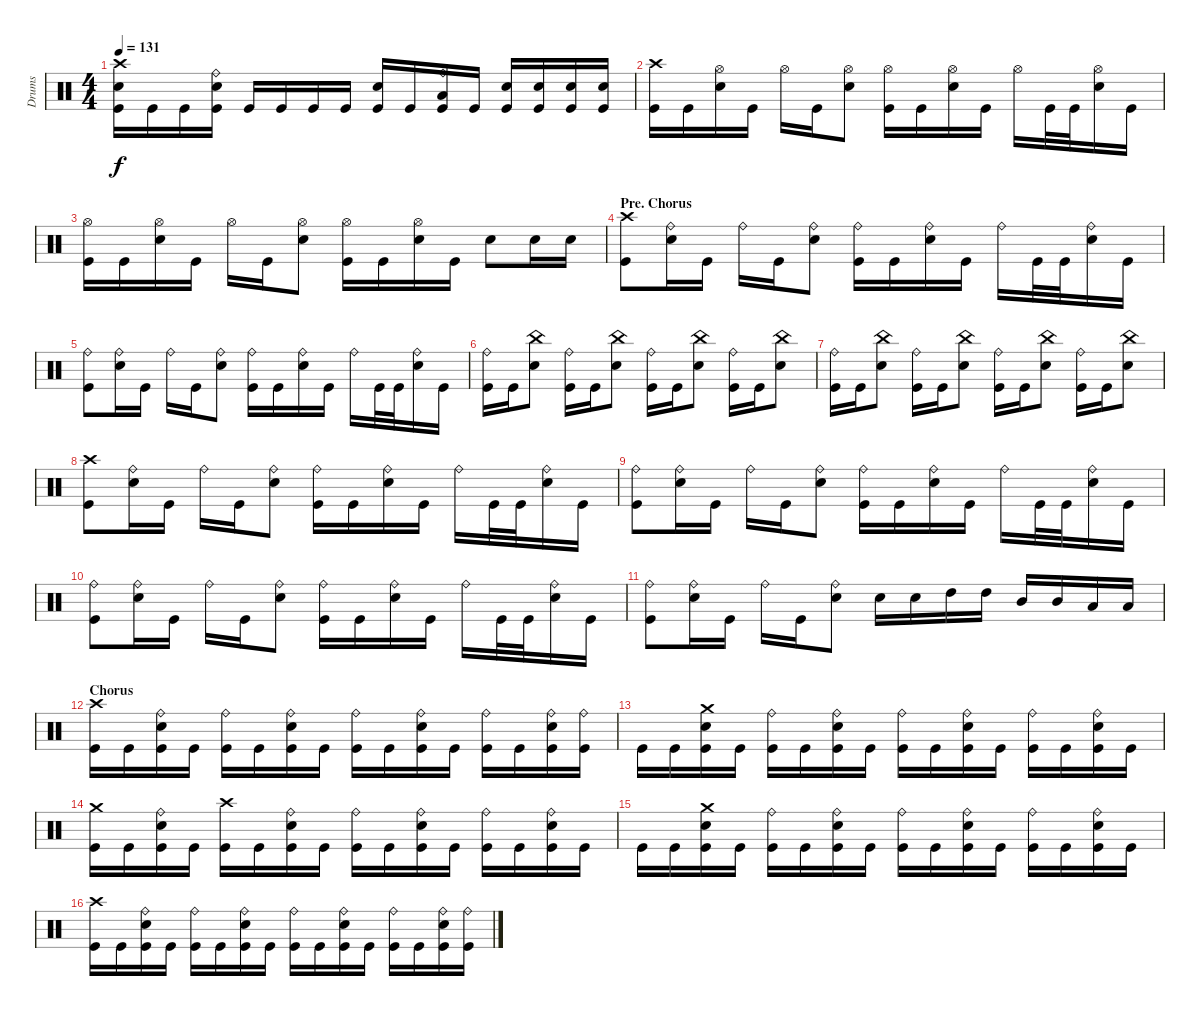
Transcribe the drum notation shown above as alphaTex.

\track ("Drums" "Drums") {instrument percussion}
\staff {score}
\articulation defaults
\ts (4 4)
\tempo 131
\clef neutral
\ks c
("Crash high (hit)" "Snare (hit) 2" "Kick (hit)").16{dy f} "Kick (hit)".16 "Kick (hit)".16 ("Ride (bell)" "Snare (hit) 2" "Kick (hit)").16 "Kick (hit)".16 "Kick (hit)".16 "Kick (hit)".16 "Kick (hit)".16 ("Snare (hit) 2" "Kick (hit)").16 "Kick (hit)".16 ("Low Tom (hit)" "Ride (bell)" "Kick (hit)").16 "Kick (hit)".16 ("Snare (hit) 2" "Kick (hit)").16 ("Snare (hit) 2" "Kick (hit)").16 ("Snare (hit) 2" "Kick (hit)").16 ("Snare (hit) 2" "Kick (hit)").16 |
("Crash high (hit)" "Kick (hit)").16 "Kick (hit)".16 ("Hi-Hat (open)" "Snare (hit) 2").16 "Kick (hit)".16 "Hi-Hat (open)".16 "Kick (hit)".16 ("Hi-Hat (open)" "Snare (hit) 2").8 ("Hi-Hat (open)" "Kick (hit)").16 "Kick (hit)".16 ("Hi-Hat (open)" "Snare (hit) 2").16 "Kick (hit)".16 "Hi-Hat (open)".16 "Kick (hit)".32 "Kick (hit)".32 ("Hi-Hat (open)" "Snare (hit) 2").16 "Kick (hit)".16 |
("Hi-Hat (open)" "Kick (hit)").16 "Kick (hit)".16 ("Hi-Hat (open)" "Snare (hit) 2").16 "Kick (hit)".16 "Hi-Hat (open)".16 "Kick (hit)".16 ("Hi-Hat (open)" "Snare (hit) 2").8 ("Hi-Hat (open)" "Kick (hit)").16 "Kick (hit)".16 ("Hi-Hat (open)" "Snare (hit) 2").16 "Kick (hit)".16 "Snare (hit) 2".8 "Snare (hit) 2".16 "Snare (hit) 2".16 |
\section ("" "Pre. Chorus")
("Crash high (hit)" "Kick (hit)").8 ("Ride (bell)" "Snare (hit) 2").16 "Kick (hit)".16 "Ride (bell)".16 "Kick (hit)".16 ("Ride (bell)" "Snare (hit) 2").8 ("Ride (bell)" "Kick (hit)").16 "Kick (hit)".16 ("Ride (bell)" "Snare (hit) 2").16 "Kick (hit)".16 "Ride (bell)".16 "Kick (hit)".32 "Kick (hit)".32 ("Ride (bell)" "Snare (hit) 2").16 "Kick (hit)".16 |
("Ride (bell)" "Kick (hit)").8 ("Ride (bell)" "Snare (hit) 2").16 "Kick (hit)".16 "Ride (bell)".16 "Kick (hit)".16 ("Ride (bell)" "Snare (hit) 2").8 ("Ride (bell)" "Kick (hit)").16 "Kick (hit)".16 ("Ride (bell)" "Snare (hit) 2").16 "Kick (hit)".16 "Ride (bell)".16 "Kick (hit)".32 "Kick (hit)".32 ("Ride (bell)" "Snare (hit) 2").16 "Kick (hit)".16 |
("Ride (bell)" "Kick (hit)").16 "Kick (hit)".16 ("China (hit)" "Snare (hit) 2").8 ("Ride (bell)" "Kick (hit)").16 "Kick (hit)".16 ("China (hit)" "Snare (hit) 2").8 ("Ride (bell)" "Kick (hit)").16 "Kick (hit)".16 ("China (hit)" "Snare (hit) 2").8 ("Ride (bell)" "Kick (hit)").16 "Kick (hit)".16 ("China (hit)" "Snare (hit) 2").8 |
("Ride (bell)" "Kick (hit)").16 "Kick (hit)".16 ("China (hit)" "Snare (hit) 2").8 ("Ride (bell)" "Kick (hit)").16 "Kick (hit)".16 ("China (hit)" "Snare (hit) 2").8 ("Ride (bell)" "Kick (hit)").16 "Kick (hit)".16 ("China (hit)" "Snare (hit) 2").8 ("Ride (bell)" "Kick (hit)").16 "Kick (hit)".16 ("China (hit)" "Snare (hit) 2").8 |
("Crash high (hit)" "Kick (hit)").8 ("Ride (bell)" "Snare (hit) 2").16 "Kick (hit)".16 "Ride (bell)".16 "Kick (hit)".16 ("Ride (bell)" "Snare (hit) 2").8 ("Ride (bell)" "Kick (hit)").16 "Kick (hit)".16 ("Ride (bell)" "Snare (hit) 2").16 "Kick (hit)".16 "Ride (bell)".16 "Kick (hit)".32 "Kick (hit)".32 ("Ride (bell)" "Snare (hit) 2").16 "Kick (hit)".16 |
("Ride (bell)" "Kick (hit)").8 ("Ride (bell)" "Snare (hit) 2").16 "Kick (hit)".16 "Ride (bell)".16 "Kick (hit)".16 ("Ride (bell)" "Snare (hit) 2").8 ("Ride (bell)" "Kick (hit)").16 "Kick (hit)".16 ("Ride (bell)" "Snare (hit) 2").16 "Kick (hit)".16 "Ride (bell)".16 "Kick (hit)".32 "Kick (hit)".32 ("Ride (bell)" "Snare (hit) 2").16 "Kick (hit)".16 |
("Ride (bell)" "Kick (hit)").8 ("Ride (bell)" "Snare (hit) 2").16 "Kick (hit)".16 "Ride (bell)".16 "Kick (hit)".16 ("Ride (bell)" "Snare (hit) 2").8 ("Ride (bell)" "Kick (hit)").16 "Kick (hit)".16 ("Ride (bell)" "Snare (hit) 2").16 "Kick (hit)".16 "Ride (bell)".16 "Kick (hit)".32 "Kick (hit)".32 ("Ride (bell)" "Snare (hit) 2").16 "Kick (hit)".16 |
("Ride (bell)" "Kick (hit)").8 ("Ride (bell)" "Snare (hit) 2").16 "Kick (hit)".16 "Ride (bell)".16 "Kick (hit)".16 ("Ride (bell)" "Snare (hit) 2").8 "Snare (hit) 2".16 "Snare (hit) 2".16 "High Tom (hit)".16 "High Tom (hit)".16 "Mid Tom (hit)".16 "Mid Tom (hit)".16 "Low Tom (hit)".16 "Low Tom (hit)".16 |
\section ("" "Chorus")
("Crash high (hit)" "Kick (hit)").16 "Kick (hit)".16 ("Ride (bell)" "Snare (hit) 2" "Kick (hit)").16 "Kick (hit)".16 ("Ride (bell)" "Kick (hit)").16 "Kick (hit)".16 ("Ride (bell)" "Snare (hit) 2" "Kick (hit)").16 "Kick (hit)".16 ("Ride (bell)" "Kick (hit)").16 "Kick (hit)".16 ("Ride (bell)" "Snare (hit) 2" "Kick (hit)").16 "Kick (hit)".16 ("Ride (bell)" "Kick (hit)").16 "Kick (hit)".16 ("Ride (bell)" "Snare (hit) 2" "Kick (hit)").16 ("Ride (bell)" "Kick (hit)").16 |
"Kick (hit)".16 "Kick (hit)".16 ("Crash medium (hit)" "Snare (hit) 2" "Kick (hit)").16 "Kick (hit)".16 ("Ride (bell)" "Kick (hit)").16 "Kick (hit)".16 ("Ride (bell)" "Snare (hit) 2" "Kick (hit)").16 "Kick (hit)".16 ("Ride (bell)" "Kick (hit)").16 "Kick (hit)".16 ("Ride (bell)" "Snare (hit) 2" "Kick (hit)").16 "Kick (hit)".16 ("Ride (bell)" "Kick (hit)").16 "Kick (hit)".16 ("Ride (bell)" "Snare (hit) 2" "Kick (hit)").16 "Kick (hit)".16 |
("Crash medium (hit)" "Kick (hit)").16 "Kick (hit)".16 ("Ride (bell)" "Snare (hit) 2" "Kick (hit)").16 "Kick (hit)".16 ("Crash high (hit)" "Kick (hit)").16 "Kick (hit)".16 ("Ride (bell)" "Snare (hit) 2" "Kick (hit)").16 "Kick (hit)".16 ("Ride (bell)" "Kick (hit)").16 "Kick (hit)".16 ("Ride (bell)" "Snare (hit) 2" "Kick (hit)").16 "Kick (hit)".16 ("Ride (bell)" "Kick (hit)").16 "Kick (hit)".16 ("Ride (bell)" "Snare (hit) 2" "Kick (hit)").16 "Kick (hit)".16 |
"Kick (hit)".16 "Kick (hit)".16 ("Crash medium (hit)" "Snare (hit) 2" "Kick (hit)").16 "Kick (hit)".16 ("Ride (bell)" "Kick (hit)").16 "Kick (hit)".16 ("Ride (bell)" "Snare (hit) 2" "Kick (hit)").16 "Kick (hit)".16 ("Ride (bell)" "Kick (hit)").16 "Kick (hit)".16 ("Ride (bell)" "Snare (hit) 2" "Kick (hit)").16 "Kick (hit)".16 ("Ride (bell)" "Kick (hit)").16 "Kick (hit)".16 ("Ride (bell)" "Snare (hit) 2" "Kick (hit)").16 "Kick (hit)".16 |
("Crash high (hit)" "Kick (hit)").16 "Kick (hit)".16 ("Ride (bell)" "Snare (hit) 2" "Kick (hit)").16 "Kick (hit)".16 ("Ride (bell)" "Kick (hit)").16 "Kick (hit)".16 ("Ride (bell)" "Snare (hit) 2" "Kick (hit)").16 "Kick (hit)".16 ("Ride (bell)" "Kick (hit)").16 "Kick (hit)".16 ("Ride (bell)" "Snare (hit) 2" "Kick (hit)").16 "Kick (hit)".16 ("Ride (bell)" "Kick (hit)").16 "Kick (hit)".16 ("Ride (bell)" "Snare (hit) 2" "Kick (hit)").16 ("Ride (bell)" "Kick (hit)").16
